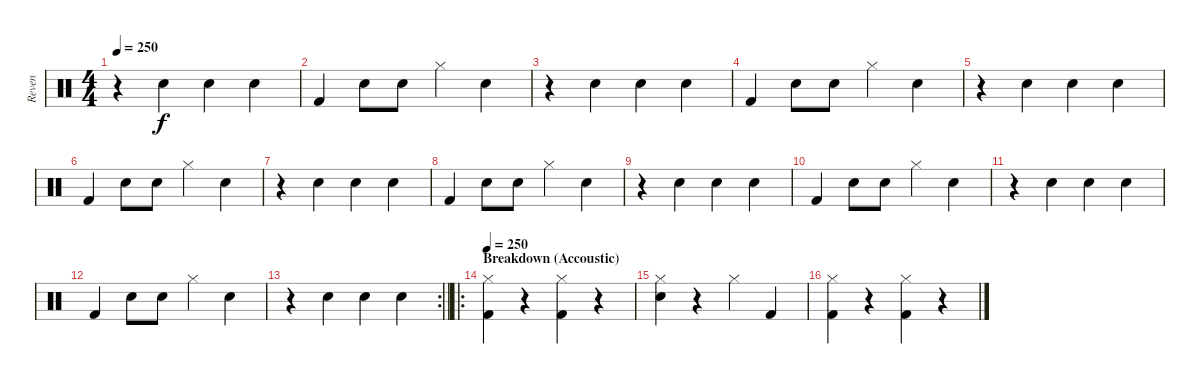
\track ("Reven" "Reven") {instrument percussion}
\staff {score}
\articulation defaults
\ts (4 4)
\tempo 250
\clef neutral
\ks c
r.4{dy f} "Electric Snare (hit)".4 "Electric Snare (hit)".4 "Electric Snare (hit)".4 |
"Kick (hit) 2".4 "Electric Snare (hit)".8 "Electric Snare (hit)".8 "Hi-Hat (closed)".4 "Electric Snare (hit)".4 |
r.4 "Electric Snare (hit)".4 "Electric Snare (hit)".4 "Electric Snare (hit)".4 |
"Kick (hit) 2".4 "Electric Snare (hit)".8 "Electric Snare (hit)".8 "Hi-Hat (closed)".4 "Electric Snare (hit)".4 |
r.4 "Electric Snare (hit)".4 "Electric Snare (hit)".4 "Electric Snare (hit)".4 |
"Kick (hit) 2".4 "Electric Snare (hit)".8 "Electric Snare (hit)".8 "Hi-Hat (closed)".4 "Electric Snare (hit)".4 |
r.4 "Electric Snare (hit)".4 "Electric Snare (hit)".4 "Electric Snare (hit)".4 |
"Kick (hit) 2".4 "Electric Snare (hit)".8 "Electric Snare (hit)".8 "Hi-Hat (closed)".4 "Electric Snare (hit)".4 |
r.4 "Electric Snare (hit)".4 "Electric Snare (hit)".4 "Electric Snare (hit)".4 |
"Kick (hit) 2".4 "Electric Snare (hit)".8 "Electric Snare (hit)".8 "Hi-Hat (closed)".4 "Electric Snare (hit)".4 |
r.4 "Electric Snare (hit)".4 "Electric Snare (hit)".4 "Electric Snare (hit)".4 |
"Kick (hit) 2".4 "Electric Snare (hit)".8 "Electric Snare (hit)".8 "Hi-Hat (closed)".4 "Electric Snare (hit)".4 |
\rc 2
\barLineRight lightlight
r.4 "Electric Snare (hit)".4 "Electric Snare (hit)".4 "Electric Snare (hit)".4 |
\ro
\section ("" "Breakdown (Accoustic)")
\tempo 250
("Hi-Hat (closed)" "Kick (hit) 2").4 r.4 ("Hi-Hat (closed)" "Kick (hit) 2").4 r.4 |
("Hi-Hat (closed)" "Electric Snare (hit)").4 r.4 "Hi-Hat (closed)".4 "Kick (hit) 2".4 |
("Hi-Hat (closed)" "Kick (hit) 2").4 r.4 ("Hi-Hat (closed)" "Kick (hit) 2").4 r.4
